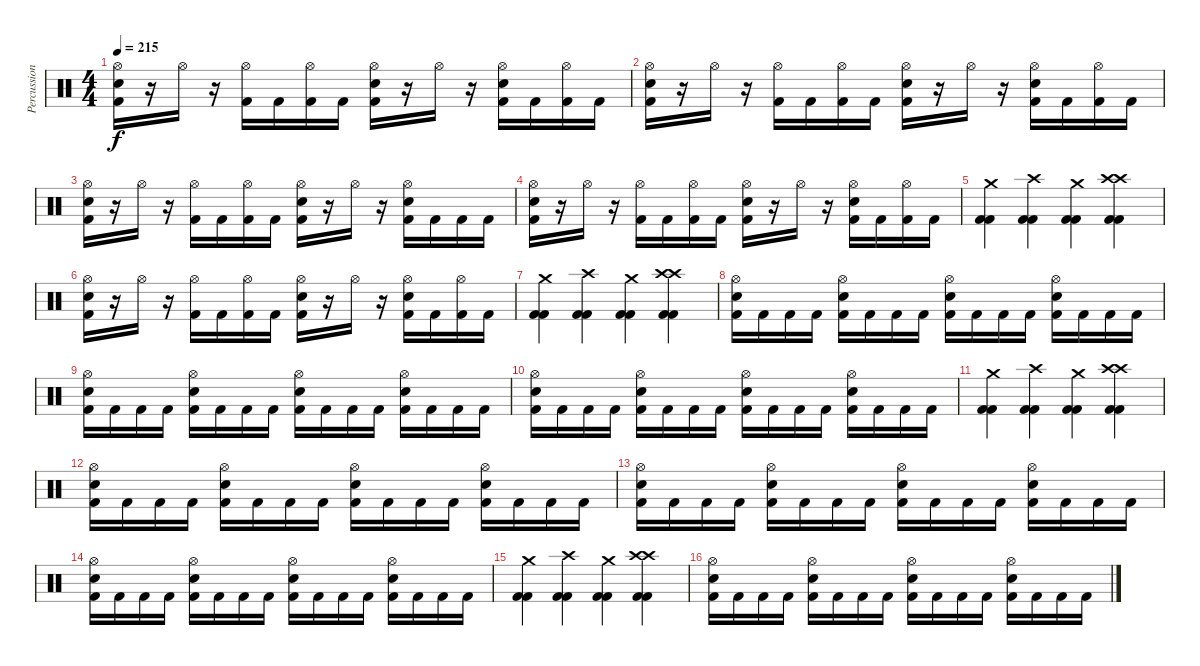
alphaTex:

\track ("Percussion" "Percussion") {instrument percussion}
\staff {score}
\articulation defaults
\ts (4 4)
\tempo 215
\clef neutral
\ks c
("Hi-Hat (open)" "Electric Snare (hit)" "Kick (hit) 2").16{dy f} r.16 "Hi-Hat (open)".16 r.16 ("Hi-Hat (open)" "Kick (hit) 2").16 "Kick (hit) 2".16 ("Hi-Hat (open)" "Kick (hit) 2").16 "Kick (hit) 2".16 ("Hi-Hat (open)" "Electric Snare (hit)" "Kick (hit) 2").16 r.16 "Hi-Hat (open)".16 r.16 ("Hi-Hat (open)" "Electric Snare (hit)" "Kick (hit) 2").16 "Kick (hit) 2".16 ("Hi-Hat (open)" "Kick (hit) 2").16 "Kick (hit) 2".16 |
("Hi-Hat (open)" "Electric Snare (hit)" "Kick (hit) 2").16 r.16 "Hi-Hat (open)".16 r.16 ("Hi-Hat (open)" "Kick (hit) 2").16 "Kick (hit) 2".16 ("Hi-Hat (open)" "Kick (hit) 2").16 "Kick (hit) 2".16 ("Hi-Hat (open)" "Electric Snare (hit)" "Kick (hit) 2").16 r.16 "Hi-Hat (open)".16 r.16 ("Hi-Hat (open)" "Electric Snare (hit)" "Kick (hit) 2").16 "Kick (hit) 2".16 ("Hi-Hat (open)" "Kick (hit) 2").16 "Kick (hit) 2".16 |
("Hi-Hat (open)" "Electric Snare (hit)" "Kick (hit) 2").16 r.16 "Hi-Hat (open)".16 r.16 ("Hi-Hat (open)" "Kick (hit) 2").16 "Kick (hit) 2".16 ("Hi-Hat (open)" "Kick (hit) 2").16 "Kick (hit) 2".16 ("Hi-Hat (open)" "Electric Snare (hit)" "Kick (hit) 2").16 r.16 "Hi-Hat (open)".16 r.16 ("Hi-Hat (open)" "Electric Snare (hit)" "Kick (hit) 2").16 "Kick (hit) 2".16 "Kick (hit) 2".16 "Kick (hit) 2".16 |
("Hi-Hat (open)" "Electric Snare (hit)" "Kick (hit) 2").16 r.16 "Hi-Hat (open)".16 r.16 ("Hi-Hat (open)" "Kick (hit) 2").16 "Kick (hit) 2".16 ("Hi-Hat (open)" "Kick (hit) 2").16 "Kick (hit) 2".16 ("Hi-Hat (open)" "Electric Snare (hit)" "Kick (hit) 2").16 r.16 "Hi-Hat (open)".16 r.16 ("Hi-Hat (open)" "Electric Snare (hit)" "Kick (hit) 2").16 "Kick (hit) 2".16 ("Hi-Hat (open)" "Kick (hit) 2").16 "Kick (hit) 2".16 |
("Crash medium (hit)" "Kick (hit) 2" "Kick (hit) 2").4 ("Crash high (hit)" "Kick (hit) 2" "Kick (hit) 2").4 ("Crash medium (hit)" "Kick (hit) 2" "Kick (hit) 2").4 ("Crash high (hit)" "Crash high (hit)" "Kick (hit) 2" "Kick (hit) 2").4 |
("Hi-Hat (open)" "Electric Snare (hit)" "Kick (hit) 2").16 r.16 "Hi-Hat (open)".16 r.16 ("Hi-Hat (open)" "Kick (hit) 2").16 "Kick (hit) 2".16 ("Hi-Hat (open)" "Kick (hit) 2").16 "Kick (hit) 2".16 ("Hi-Hat (open)" "Electric Snare (hit)" "Kick (hit) 2").16 r.16 "Hi-Hat (open)".16 r.16 ("Hi-Hat (open)" "Electric Snare (hit)" "Kick (hit) 2").16 "Kick (hit) 2".16 ("Hi-Hat (open)" "Kick (hit) 2").16 "Kick (hit) 2".16 |
("Crash medium (hit)" "Kick (hit) 2" "Kick (hit) 2").4 ("Crash high (hit)" "Kick (hit) 2" "Kick (hit) 2").4 ("Crash medium (hit)" "Kick (hit) 2" "Kick (hit) 2").4 ("Crash high (hit)" "Crash high (hit)" "Kick (hit) 2" "Kick (hit) 2").4 |
("Hi-Hat (open)" "Electric Snare (hit)" "Kick (hit) 2").16 "Kick (hit) 2".16 "Kick (hit) 2".16 "Kick (hit) 2".16 ("Hi-Hat (open)" "Electric Snare (hit)" "Kick (hit) 2").16 "Kick (hit) 2".16 "Kick (hit) 2".16 "Kick (hit) 2".16 ("Hi-Hat (open)" "Electric Snare (hit)" "Kick (hit) 2").16 "Kick (hit) 2".16 "Kick (hit) 2".16 "Kick (hit) 2".16 ("Hi-Hat (open)" "Electric Snare (hit)" "Kick (hit) 2").16 "Kick (hit) 2".16 "Kick (hit) 2".16 "Kick (hit) 2".16 |
("Hi-Hat (open)" "Electric Snare (hit)" "Kick (hit) 2").16 "Kick (hit) 2".16 "Kick (hit) 2".16 "Kick (hit) 2".16 ("Hi-Hat (open)" "Electric Snare (hit)" "Kick (hit) 2").16 "Kick (hit) 2".16 "Kick (hit) 2".16 "Kick (hit) 2".16 ("Hi-Hat (open)" "Electric Snare (hit)" "Kick (hit) 2").16 "Kick (hit) 2".16 "Kick (hit) 2".16 "Kick (hit) 2".16 ("Hi-Hat (open)" "Electric Snare (hit)" "Kick (hit) 2").16 "Kick (hit) 2".16 "Kick (hit) 2".16 "Kick (hit) 2".16 |
("Hi-Hat (open)" "Electric Snare (hit)" "Kick (hit) 2").16 "Kick (hit) 2".16 "Kick (hit) 2".16 "Kick (hit) 2".16 ("Hi-Hat (open)" "Electric Snare (hit)" "Kick (hit) 2").16 "Kick (hit) 2".16 "Kick (hit) 2".16 "Kick (hit) 2".16 ("Hi-Hat (open)" "Electric Snare (hit)" "Kick (hit) 2").16 "Kick (hit) 2".16 "Kick (hit) 2".16 "Kick (hit) 2".16 ("Hi-Hat (open)" "Electric Snare (hit)" "Kick (hit) 2").16 "Kick (hit) 2".16 "Kick (hit) 2".16 "Kick (hit) 2".16 |
("Crash medium (hit)" "Kick (hit) 2" "Kick (hit) 2").4 ("Crash high (hit)" "Kick (hit) 2" "Kick (hit) 2").4 ("Crash medium (hit)" "Kick (hit) 2" "Kick (hit) 2").4 ("Crash high (hit)" "Crash high (hit)" "Kick (hit) 2" "Kick (hit) 2").4 |
("Hi-Hat (open)" "Electric Snare (hit)" "Kick (hit) 2").16 "Kick (hit) 2".16 "Kick (hit) 2".16 "Kick (hit) 2".16 ("Hi-Hat (open)" "Electric Snare (hit)" "Kick (hit) 2").16 "Kick (hit) 2".16 "Kick (hit) 2".16 "Kick (hit) 2".16 ("Hi-Hat (open)" "Electric Snare (hit)" "Kick (hit) 2").16 "Kick (hit) 2".16 "Kick (hit) 2".16 "Kick (hit) 2".16 ("Hi-Hat (open)" "Electric Snare (hit)" "Kick (hit) 2").16 "Kick (hit) 2".16 "Kick (hit) 2".16 "Kick (hit) 2".16 |
("Hi-Hat (open)" "Electric Snare (hit)" "Kick (hit) 2").16 "Kick (hit) 2".16 "Kick (hit) 2".16 "Kick (hit) 2".16 ("Hi-Hat (open)" "Electric Snare (hit)" "Kick (hit) 2").16 "Kick (hit) 2".16 "Kick (hit) 2".16 "Kick (hit) 2".16 ("Hi-Hat (open)" "Electric Snare (hit)" "Kick (hit) 2").16 "Kick (hit) 2".16 "Kick (hit) 2".16 "Kick (hit) 2".16 ("Hi-Hat (open)" "Electric Snare (hit)" "Kick (hit) 2").16 "Kick (hit) 2".16 "Kick (hit) 2".16 "Kick (hit) 2".16 |
("Hi-Hat (open)" "Electric Snare (hit)" "Kick (hit) 2").16 "Kick (hit) 2".16 "Kick (hit) 2".16 "Kick (hit) 2".16 ("Hi-Hat (open)" "Electric Snare (hit)" "Kick (hit) 2").16 "Kick (hit) 2".16 "Kick (hit) 2".16 "Kick (hit) 2".16 ("Hi-Hat (open)" "Electric Snare (hit)" "Kick (hit) 2").16 "Kick (hit) 2".16 "Kick (hit) 2".16 "Kick (hit) 2".16 ("Hi-Hat (open)" "Electric Snare (hit)" "Kick (hit) 2").16 "Kick (hit) 2".16 "Kick (hit) 2".16 "Kick (hit) 2".16 |
("Crash medium (hit)" "Kick (hit) 2" "Kick (hit) 2").4 ("Crash high (hit)" "Kick (hit) 2" "Kick (hit) 2").4 ("Crash medium (hit)" "Kick (hit) 2" "Kick (hit) 2").4 ("Crash high (hit)" "Crash high (hit)" "Kick (hit) 2" "Kick (hit) 2").4 |
("Hi-Hat (open)" "Electric Snare (hit)" "Kick (hit) 2").16 "Kick (hit) 2".16 "Kick (hit) 2".16 "Kick (hit) 2".16 ("Hi-Hat (open)" "Electric Snare (hit)" "Kick (hit) 2").16 "Kick (hit) 2".16 "Kick (hit) 2".16 "Kick (hit) 2".16 ("Hi-Hat (open)" "Electric Snare (hit)" "Kick (hit) 2").16 "Kick (hit) 2".16 "Kick (hit) 2".16 "Kick (hit) 2".16 ("Hi-Hat (open)" "Electric Snare (hit)" "Kick (hit) 2").16 "Kick (hit) 2".16 "Kick (hit) 2".16 "Kick (hit) 2".16
